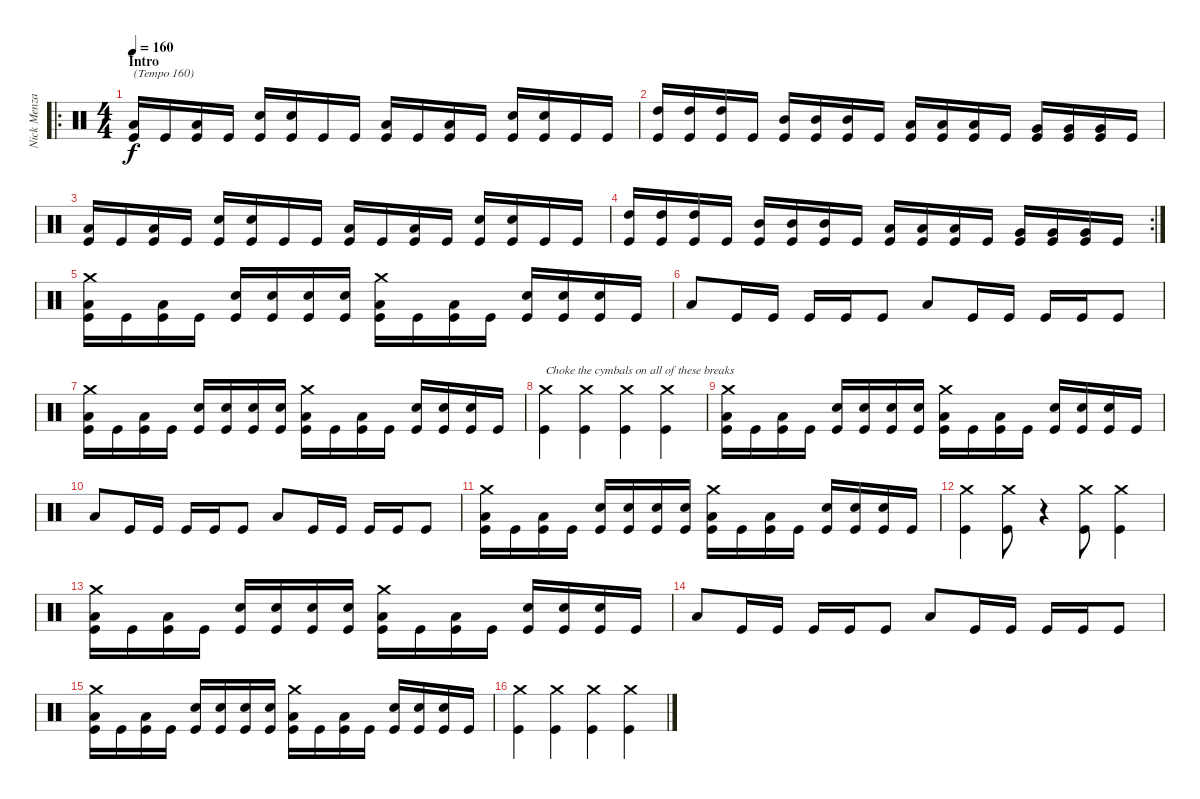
\track ("Nick Menza" "Nick Menza") {instrument percussion}
\staff {score}
\articulation defaults
\ro
\ts (4 4)
\section ("" "Intro")
\tempo 160
\clef neutral
\ks c
("Low Floor Tom (hit)" "Kick (hit)").16{txt "(Tempo 160)" dy f} "Kick (hit)".16 ("Low Floor Tom (hit)" "Kick (hit)").16 "Kick (hit)".16 ("Snare (hit) 2" "Kick (hit)").16 ("Snare (hit) 2" "Kick (hit)").16 "Kick (hit)".16 "Kick (hit)".16 ("Low Floor Tom (hit)" "Kick (hit)").16 "Kick (hit)".16 ("Low Floor Tom (hit)" "Kick (hit)").16 "Kick (hit)".16 ("Snare (hit) 2" "Kick (hit)").16 ("Snare (hit) 2" "Kick (hit)").16 "Kick (hit)".16 "Kick (hit)".16 |
("High Tom (hit)" "Kick (hit)").16 ("High Tom (hit)" "Kick (hit)").16 ("High Tom (hit)" "Kick (hit)").16 "Kick (hit)".16 ("Mid Tom (hit)" "Kick (hit)").16 ("Mid Tom (hit)" "Kick (hit)").16 ("Mid Tom (hit)" "Kick (hit)").16 "Kick (hit)".16 ("Low Tom (hit)" "Kick (hit)").16 ("Low Tom (hit)" "Kick (hit)").16 ("Low Tom (hit)" "Kick (hit)").16 "Kick (hit)".16 ("Very Low Tom (hit)" "Kick (hit)").16 ("Very Low Tom (hit)" "Kick (hit)").16 ("Very Low Tom (hit)" "Kick (hit)").16 "Kick (hit)".16 |
("Low Floor Tom (hit)" "Kick (hit)").16 "Kick (hit)".16 ("Low Floor Tom (hit)" "Kick (hit)").16 "Kick (hit)".16 ("Snare (hit) 2" "Kick (hit)").16 ("Snare (hit) 2" "Kick (hit)").16 "Kick (hit)".16 "Kick (hit)".16 ("Low Floor Tom (hit)" "Kick (hit)").16 "Kick (hit)".16 ("Low Floor Tom (hit)" "Kick (hit)").16 "Kick (hit)".16 ("Snare (hit) 2" "Kick (hit)").16 ("Snare (hit) 2" "Kick (hit)").16 "Kick (hit)".16 "Kick (hit)".16 |
\rc 2
("High Tom (hit)" "Kick (hit)").16 ("High Tom (hit)" "Kick (hit)").16 ("High Tom (hit)" "Kick (hit)").16 "Kick (hit)".16 ("Mid Tom (hit)" "Kick (hit)").16 ("Mid Tom (hit)" "Kick (hit)").16 ("Mid Tom (hit)" "Kick (hit)").16 "Kick (hit)".16 ("Low Tom (hit)" "Kick (hit)").16 ("Low Tom (hit)" "Kick (hit)").16 ("Low Tom (hit)" "Kick (hit)").16 "Kick (hit)".16 ("Very Low Tom (hit)" "Kick (hit)").16 ("Very Low Tom (hit)" "Kick (hit)").16 ("Very Low Tom (hit)" "Kick (hit)").16 "Kick (hit)".16 |
("Crash medium (hit)" "Low Floor Tom (hit)" "Kick (hit)").16 "Kick (hit)".16 ("Low Floor Tom (hit)" "Kick (hit)").16 "Kick (hit)".16 ("Snare (hit) 2" "Kick (hit)").16 ("Snare (hit) 2" "Kick (hit)").16 ("Snare (hit) 2" "Kick (hit)").16 ("Snare (hit) 2" "Kick (hit)").16 ("Crash medium (hit)" "Low Floor Tom (hit)" "Kick (hit)").16 "Kick (hit)".16 ("Low Floor Tom (hit)" "Kick (hit)").16 "Kick (hit)".16 ("Snare (hit) 2" "Kick (hit)").16 ("Snare (hit) 2" "Kick (hit)").16 ("Snare (hit) 2" "Kick (hit)").16 "Kick (hit)".16 |
"Low Floor Tom (hit)".8 "Kick (hit)".16 "Kick (hit)".16 "Kick (hit)".16 "Kick (hit)".16 "Kick (hit)".8 "Low Floor Tom (hit)".8 "Kick (hit)".16 "Kick (hit)".16 "Kick (hit)".16 "Kick (hit)".16 "Kick (hit)".8 |
("Crash medium (hit)" "Low Floor Tom (hit)" "Kick (hit)").16 "Kick (hit)".16 ("Low Floor Tom (hit)" "Kick (hit)").16 "Kick (hit)".16 ("Snare (hit) 2" "Kick (hit)").16 ("Snare (hit) 2" "Kick (hit)").16 ("Snare (hit) 2" "Kick (hit)").16 ("Snare (hit) 2" "Kick (hit)").16 ("Crash medium (hit)" "Low Floor Tom (hit)" "Kick (hit)").16 "Kick (hit)".16 ("Low Floor Tom (hit)" "Kick (hit)").16 "Kick (hit)".16 ("Snare (hit) 2" "Kick (hit)").16 ("Snare (hit) 2" "Kick (hit)").16 ("Snare (hit) 2" "Kick (hit)").16 "Kick (hit)".16 |
("Crash medium (hit)" "Kick (hit)").4{txt "Choke the cymbals on all of these breaks"} ("Crash medium (hit)" "Kick (hit)").4 ("Crash medium (hit)" "Kick (hit)").4 ("Crash medium (hit)" "Kick (hit)").4 |
("Crash medium (hit)" "Low Floor Tom (hit)" "Kick (hit)").16 "Kick (hit)".16 ("Low Floor Tom (hit)" "Kick (hit)").16 "Kick (hit)".16 ("Snare (hit) 2" "Kick (hit)").16 ("Snare (hit) 2" "Kick (hit)").16 ("Snare (hit) 2" "Kick (hit)").16 ("Snare (hit) 2" "Kick (hit)").16 ("Crash medium (hit)" "Low Floor Tom (hit)" "Kick (hit)").16 "Kick (hit)".16 ("Low Floor Tom (hit)" "Kick (hit)").16 "Kick (hit)".16 ("Snare (hit) 2" "Kick (hit)").16 ("Snare (hit) 2" "Kick (hit)").16 ("Snare (hit) 2" "Kick (hit)").16 "Kick (hit)".16 |
"Low Floor Tom (hit)".8 "Kick (hit)".16 "Kick (hit)".16 "Kick (hit)".16 "Kick (hit)".16 "Kick (hit)".8 "Low Floor Tom (hit)".8 "Kick (hit)".16 "Kick (hit)".16 "Kick (hit)".16 "Kick (hit)".16 "Kick (hit)".8 |
("Crash medium (hit)" "Low Floor Tom (hit)" "Kick (hit)").16 "Kick (hit)".16 ("Low Floor Tom (hit)" "Kick (hit)").16 "Kick (hit)".16 ("Snare (hit) 2" "Kick (hit)").16 ("Snare (hit) 2" "Kick (hit)").16 ("Snare (hit) 2" "Kick (hit)").16 ("Snare (hit) 2" "Kick (hit)").16 ("Crash medium (hit)" "Low Floor Tom (hit)" "Kick (hit)").16 "Kick (hit)".16 ("Low Floor Tom (hit)" "Kick (hit)").16 "Kick (hit)".16 ("Snare (hit) 2" "Kick (hit)").16 ("Snare (hit) 2" "Kick (hit)").16 ("Snare (hit) 2" "Kick (hit)").16 "Kick (hit)".16 |
("Crash medium (hit)" "Kick (hit)").4 ("Crash medium (hit)" "Kick (hit)").8 r.4 ("Crash medium (hit)" "Kick (hit)").8 ("Crash medium (hit)" "Kick (hit)").4 |
("Crash medium (hit)" "Low Floor Tom (hit)" "Kick (hit)").16 "Kick (hit)".16 ("Low Floor Tom (hit)" "Kick (hit)").16 "Kick (hit)".16 ("Snare (hit) 2" "Kick (hit)").16 ("Snare (hit) 2" "Kick (hit)").16 ("Snare (hit) 2" "Kick (hit)").16 ("Snare (hit) 2" "Kick (hit)").16 ("Crash medium (hit)" "Low Floor Tom (hit)" "Kick (hit)").16 "Kick (hit)".16 ("Low Floor Tom (hit)" "Kick (hit)").16 "Kick (hit)".16 ("Snare (hit) 2" "Kick (hit)").16 ("Snare (hit) 2" "Kick (hit)").16 ("Snare (hit) 2" "Kick (hit)").16 "Kick (hit)".16 |
"Low Floor Tom (hit)".8 "Kick (hit)".16 "Kick (hit)".16 "Kick (hit)".16 "Kick (hit)".16 "Kick (hit)".8 "Low Floor Tom (hit)".8 "Kick (hit)".16 "Kick (hit)".16 "Kick (hit)".16 "Kick (hit)".16 "Kick (hit)".8 |
("Crash medium (hit)" "Low Floor Tom (hit)" "Kick (hit)").16 "Kick (hit)".16 ("Low Floor Tom (hit)" "Kick (hit)").16 "Kick (hit)".16 ("Snare (hit) 2" "Kick (hit)").16 ("Snare (hit) 2" "Kick (hit)").16 ("Snare (hit) 2" "Kick (hit)").16 ("Snare (hit) 2" "Kick (hit)").16 ("Crash medium (hit)" "Low Floor Tom (hit)" "Kick (hit)").16 "Kick (hit)".16 ("Low Floor Tom (hit)" "Kick (hit)").16 "Kick (hit)".16 ("Snare (hit) 2" "Kick (hit)").16 ("Snare (hit) 2" "Kick (hit)").16 ("Snare (hit) 2" "Kick (hit)").16 "Kick (hit)".16 |
("Crash medium (hit)" "Kick (hit)").4 ("Crash medium (hit)" "Kick (hit)").4 ("Crash medium (hit)" "Kick (hit)").4 ("Crash medium (hit)" "Kick (hit)").4
